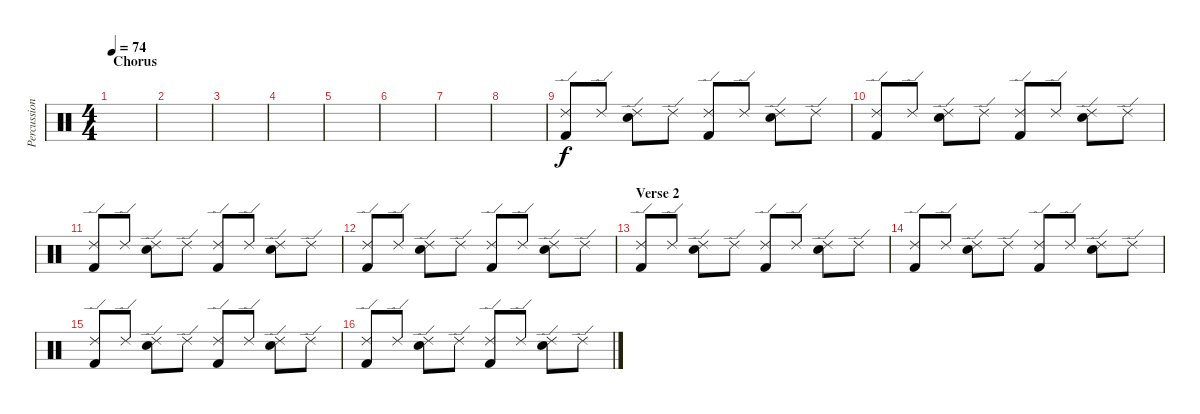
\track ("Percussion" "Percussion") {instrument percussion}
\staff {score}
\articulation defaults
\ts (4 4)
\section ("" "Chorus")
\tempo 74
\clef neutral
\ks c
|
|
|
|
|
|
|
|
("Ride (edge) 2" "Kick (hit) 2").8 "Ride (edge) 2".8 ("Ride (edge) 2" "Electric Snare (hit)").8 "Ride (edge) 2".8 ("Ride (edge) 2" "Kick (hit) 2").8 "Ride (edge) 2".8 ("Ride (edge) 2" "Electric Snare (hit)").8 "Ride (edge) 2".8 |
("Ride (edge) 2" "Kick (hit) 2").8 "Ride (edge) 2".8 ("Ride (edge) 2" "Electric Snare (hit)").8 "Ride (edge) 2".8 ("Ride (edge) 2" "Kick (hit) 2").8 "Ride (edge) 2".8 ("Ride (edge) 2" "Electric Snare (hit)").8 "Ride (edge) 2".8 |
("Ride (edge) 2" "Kick (hit) 2").8 "Ride (edge) 2".8 ("Ride (edge) 2" "Electric Snare (hit)").8 "Ride (edge) 2".8 ("Ride (edge) 2" "Kick (hit) 2").8 "Ride (edge) 2".8 ("Ride (edge) 2" "Electric Snare (hit)").8 "Ride (edge) 2".8 |
("Ride (edge) 2" "Kick (hit) 2").8 "Ride (edge) 2".8 ("Ride (edge) 2" "Electric Snare (hit)").8 "Ride (edge) 2".8 ("Ride (edge) 2" "Kick (hit) 2").8 "Ride (edge) 2".8 ("Ride (edge) 2" "Electric Snare (hit)").8 "Ride (edge) 2".8 |
\section ("" "Verse 2")
("Ride (edge) 2" "Kick (hit) 2").8 "Ride (edge) 2".8 ("Ride (edge) 2" "Electric Snare (hit)").8 "Ride (edge) 2".8 ("Ride (edge) 2" "Kick (hit) 2").8 "Ride (edge) 2".8 ("Ride (edge) 2" "Electric Snare (hit)").8 "Ride (edge) 2".8 |
("Ride (edge) 2" "Kick (hit) 2").8 "Ride (edge) 2".8 ("Ride (edge) 2" "Electric Snare (hit)").8 "Ride (edge) 2".8 ("Ride (edge) 2" "Kick (hit) 2").8 "Ride (edge) 2".8 ("Ride (edge) 2" "Electric Snare (hit)").8 "Ride (edge) 2".8 |
("Ride (edge) 2" "Kick (hit) 2").8 "Ride (edge) 2".8 ("Ride (edge) 2" "Electric Snare (hit)").8 "Ride (edge) 2".8 ("Ride (edge) 2" "Kick (hit) 2").8 "Ride (edge) 2".8 ("Ride (edge) 2" "Electric Snare (hit)").8 "Ride (edge) 2".8 |
("Ride (edge) 2" "Kick (hit) 2").8 "Ride (edge) 2".8 ("Ride (edge) 2" "Electric Snare (hit)").8 "Ride (edge) 2".8 ("Ride (edge) 2" "Kick (hit) 2").8 "Ride (edge) 2".8 ("Ride (edge) 2" "Electric Snare (hit)").8 "Ride (edge) 2".8
